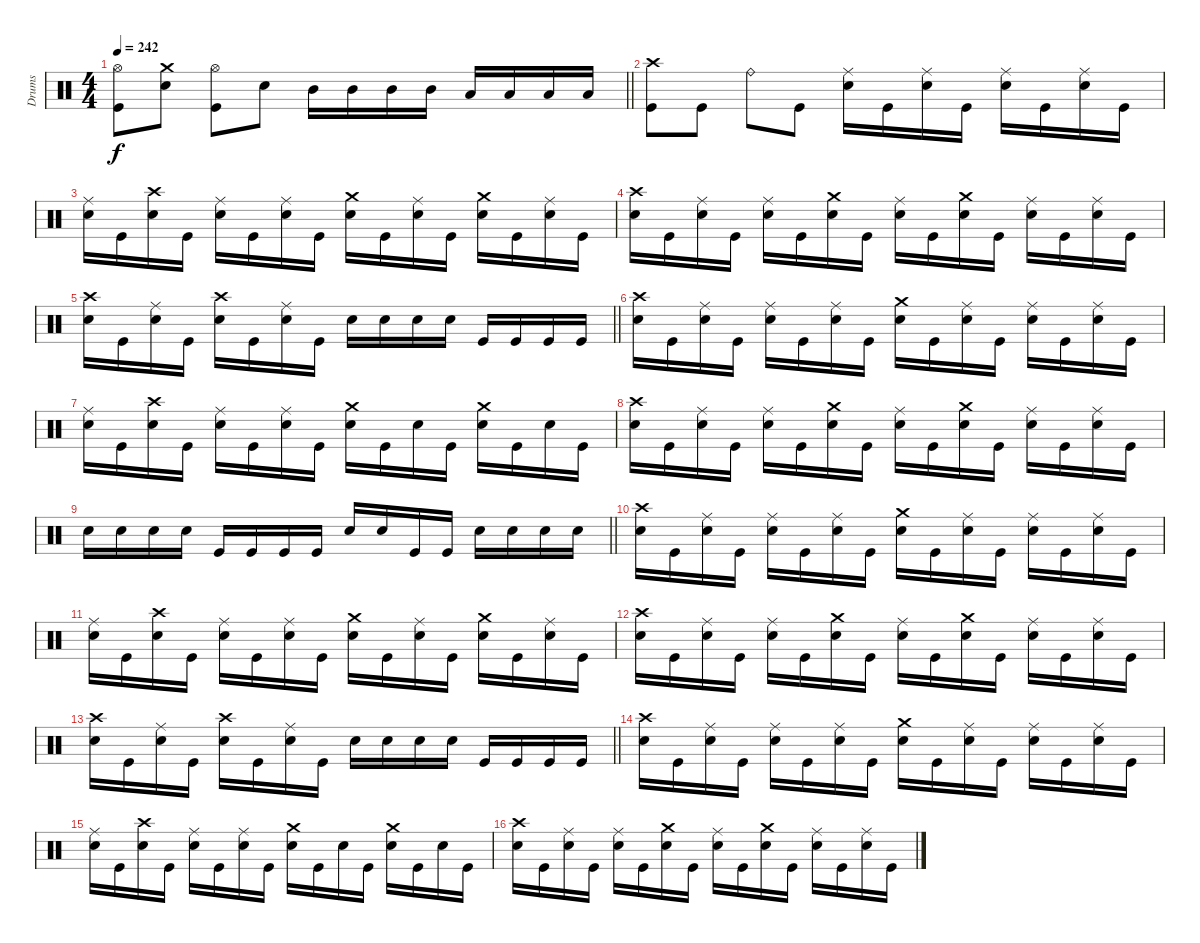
\track ("Drums" "Drums") {instrument percussion}
\staff
\articulation defaults
\ts (4 4)
\tempo 242
\clef neutral
\barLineRight lightlight
\ks c
("Hi-Hat (open)" "Kick (hit)").8{dy f} ("Crash medium (hit)" "Electric Snare (hit)").8 ("Hi-Hat (open)" "Kick (hit)").8 "Electric Snare (hit)".8 "Mid Tom (hit)".16 "Mid Tom (hit)".16 "Mid Tom (hit)".16 "Mid Tom (hit)".16 "Low Tom (hit)".16 "Low Tom (hit)".16 "Low Tom (hit)".16 "Low Tom (hit)".16 |
("Crash high (hit)" "Kick (hit)").8 "Kick (hit)".8 "Ride (bell)".8 "Kick (hit)".8 ("Ride (middle)" "Electric Snare (hit)").16 "Kick (hit)".16 ("Ride (middle)" "Electric Snare (hit)").16 "Kick (hit)".16 ("Ride (middle)" "Electric Snare (hit)").16 "Kick (hit)".16 ("Ride (middle)" "Electric Snare (hit)").16 "Kick (hit)".16 |
("Ride (middle)" "Electric Snare (hit)").16 "Kick (hit)".16 ("Crash high (hit)" "Electric Snare (hit)").16 "Kick (hit)".16 ("Ride (middle)" "Electric Snare (hit)").16 "Kick (hit)".16 ("Ride (middle)" "Electric Snare (hit)").16 "Kick (hit)".16 ("Crash medium (hit)" "Electric Snare (hit)").16 "Kick (hit)".16 ("Ride (middle)" "Electric Snare (hit)").16 "Kick (hit)".16 ("Crash medium (hit)" "Electric Snare (hit)").16 "Kick (hit)".16 ("Ride (middle)" "Electric Snare (hit)").16 "Kick (hit)".16 |
("Crash high (hit)" "Electric Snare (hit)").16 "Kick (hit)".16 ("Ride (middle)" "Electric Snare (hit)").16 "Kick (hit)".16 ("Ride (middle)" "Electric Snare (hit)").16 "Kick (hit)".16 ("Crash medium (hit)" "Electric Snare (hit)").16 "Kick (hit)".16 ("Ride (middle)" "Electric Snare (hit)").16 "Kick (hit)".16 ("Crash medium (hit)" "Electric Snare (hit)").16 "Kick (hit)".16 ("Ride (middle)" "Electric Snare (hit)").16 "Kick (hit)".16 ("Ride (middle)" "Electric Snare (hit)").16 "Kick (hit)".16 |
\barLineRight lightlight
("Crash high (hit)" "Electric Snare (hit)").16 "Kick (hit)".16 ("Ride (middle)" "Electric Snare (hit)").16 "Kick (hit)".16 ("Crash high (hit)" "Electric Snare (hit)").16 "Kick (hit)".16 ("Ride (middle)" "Electric Snare (hit)").16 "Kick (hit)".16 "Electric Snare (hit)".16 "Electric Snare (hit)".16 "Electric Snare (hit)".16 "Electric Snare (hit)".16 "Kick (hit)".16 "Kick (hit)".16 "Kick (hit)".16 "Kick (hit)".16 |
("Crash high (hit)" "Electric Snare (hit)").16 "Kick (hit)".16 ("Ride (middle)" "Electric Snare (hit)").16 "Kick (hit)".16 ("Ride (middle)" "Electric Snare (hit)").16 "Kick (hit)".16 ("Ride (middle)" "Electric Snare (hit)").16 "Kick (hit)".16 ("Crash medium (hit)" "Electric Snare (hit)").16 "Kick (hit)".16 ("Ride (middle)" "Electric Snare (hit)").16 "Kick (hit)".16 ("Ride (middle)" "Electric Snare (hit)").16 "Kick (hit)".16 ("Ride (middle)" "Electric Snare (hit)").16 "Kick (hit)".16 |
("Ride (middle)" "Electric Snare (hit)").16 "Kick (hit)".16 ("Crash high (hit)" "Electric Snare (hit)").16 "Kick (hit)".16 ("Ride (middle)" "Electric Snare (hit)").16 "Kick (hit)".16 ("Ride (middle)" "Electric Snare (hit)").16 "Kick (hit)".16 ("Crash medium (hit)" "Electric Snare (hit)").16 "Kick (hit)".16 "Electric Snare (hit)".16 "Kick (hit)".16 ("Crash medium (hit)" "Electric Snare (hit)").16 "Kick (hit)".16 "Electric Snare (hit)".16 "Kick (hit)".16 |
("Crash high (hit)" "Electric Snare (hit)").16 "Kick (hit)".16 ("Ride (middle)" "Electric Snare (hit)").16 "Kick (hit)".16 ("Ride (middle)" "Electric Snare (hit)").16 "Kick (hit)".16 ("Crash medium (hit)" "Electric Snare (hit)").16 "Kick (hit)".16 ("Ride (middle)" "Electric Snare (hit)").16 "Kick (hit)".16 ("Crash medium (hit)" "Electric Snare (hit)").16 "Kick (hit)".16 ("Ride (middle)" "Electric Snare (hit)").16 "Kick (hit)".16 ("Ride (middle)" "Electric Snare (hit)").16 "Kick (hit)".16 |
\barLineRight lightlight "Electric Snare (hit)".16 "Electric Snare (hit)".16 "Electric Snare (hit)".16 "Electric Snare (hit)".16 "Kick (hit)".16 "Kick (hit)".16 "Kick (hit)".16 "Kick (hit)".16 "Electric Snare (hit)".16 "Electric Snare (hit)".16 "Kick (hit)".16 "Kick (hit)".16 "Electric Snare (hit)".16 "Electric Snare (hit)".16 "Electric Snare (hit)".16 "Electric Snare (hit)".16
|
("Crash high (hit)" "Electric Snare (hit)").16 "Kick (hit)".16 ("Ride (middle)" "Electric Snare (hit)").16 "Kick (hit)".16 ("Ride (middle)" "Electric Snare (hit)").16 "Kick (hit)".16 ("Ride (middle)" "Electric Snare (hit)").16 "Kick (hit)".16 ("Crash medium (hit)" "Electric Snare (hit)").16 "Kick (hit)".16 ("Ride (middle)" "Electric Snare (hit)").16 "Kick (hit)".16 ("Ride (middle)" "Electric Snare (hit)").16 "Kick (hit)".16 ("Ride (middle)" "Electric Snare (hit)").16 "Kick (hit)".16 |
("Ride (middle)" "Electric Snare (hit)").16 "Kick (hit)".16 ("Crash high (hit)" "Electric Snare (hit)").16 "Kick (hit)".16 ("Ride (middle)" "Electric Snare (hit)").16 "Kick (hit)".16 ("Ride (middle)" "Electric Snare (hit)").16 "Kick (hit)".16 ("Crash medium (hit)" "Electric Snare (hit)").16 "Kick (hit)".16 ("Ride (middle)" "Electric Snare (hit)").16 "Kick (hit)".16 ("Crash medium (hit)" "Electric Snare (hit)").16 "Kick (hit)".16 ("Ride (middle)" "Electric Snare (hit)").16 "Kick (hit)".16 |
("Crash high (hit)" "Electric Snare (hit)").16 "Kick (hit)".16 ("Ride (middle)" "Electric Snare (hit)").16 "Kick (hit)".16 ("Ride (middle)" "Electric Snare (hit)").16 "Kick (hit)".16 ("Crash medium (hit)" "Electric Snare (hit)").16 "Kick (hit)".16 ("Ride (middle)" "Electric Snare (hit)").16 "Kick (hit)".16 ("Crash medium (hit)" "Electric Snare (hit)").16 "Kick (hit)".16 ("Ride (middle)" "Electric Snare (hit)").16 "Kick (hit)".16 ("Ride (middle)" "Electric Snare (hit)").16 "Kick (hit)".16 |
\barLineRight lightlight
("Crash high (hit)" "Electric Snare (hit)").16 "Kick (hit)".16 ("Ride (middle)" "Electric Snare (hit)").16 "Kick (hit)".16 ("Crash high (hit)" "Electric Snare (hit)").16 "Kick (hit)".16 ("Ride (middle)" "Electric Snare (hit)").16 "Kick (hit)".16 "Electric Snare (hit)".16 "Electric Snare (hit)".16 "Electric Snare (hit)".16 "Electric Snare (hit)".16 "Kick (hit)".16 "Kick (hit)".16 "Kick (hit)".16 "Kick (hit)".16 |
("Crash high (hit)" "Electric Snare (hit)").16 "Kick (hit)".16 ("Ride (middle)" "Electric Snare (hit)").16 "Kick (hit)".16 ("Ride (middle)" "Electric Snare (hit)").16 "Kick (hit)".16 ("Ride (middle)" "Electric Snare (hit)").16 "Kick (hit)".16 ("Crash medium (hit)" "Electric Snare (hit)").16 "Kick (hit)".16 ("Ride (middle)" "Electric Snare (hit)").16 "Kick (hit)".16 ("Ride (middle)" "Electric Snare (hit)").16 "Kick (hit)".16 ("Ride (middle)" "Electric Snare (hit)").16 "Kick (hit)".16 |
("Ride (middle)" "Electric Snare (hit)").16 "Kick (hit)".16 ("Crash high (hit)" "Electric Snare (hit)").16 "Kick (hit)".16 ("Ride (middle)" "Electric Snare (hit)").16 "Kick (hit)".16 ("Ride (middle)" "Electric Snare (hit)").16 "Kick (hit)".16 ("Crash medium (hit)" "Electric Snare (hit)").16 "Kick (hit)".16 "Electric Snare (hit)".16 "Kick (hit)".16 ("Crash medium (hit)" "Electric Snare (hit)").16 "Kick (hit)".16 "Electric Snare (hit)".16 "Kick (hit)".16 |
("Crash high (hit)" "Electric Snare (hit)").16 "Kick (hit)".16 ("Ride (middle)" "Electric Snare (hit)").16 "Kick (hit)".16 ("Ride (middle)" "Electric Snare (hit)").16 "Kick (hit)".16 ("Crash medium (hit)" "Electric Snare (hit)").16 "Kick (hit)".16 ("Ride (middle)" "Electric Snare (hit)").16 "Kick (hit)".16 ("Crash medium (hit)" "Electric Snare (hit)").16 "Kick (hit)".16 ("Ride (middle)" "Electric Snare (hit)").16 "Kick (hit)".16 ("Ride (middle)" "Electric Snare (hit)").16 "Kick (hit)".16
